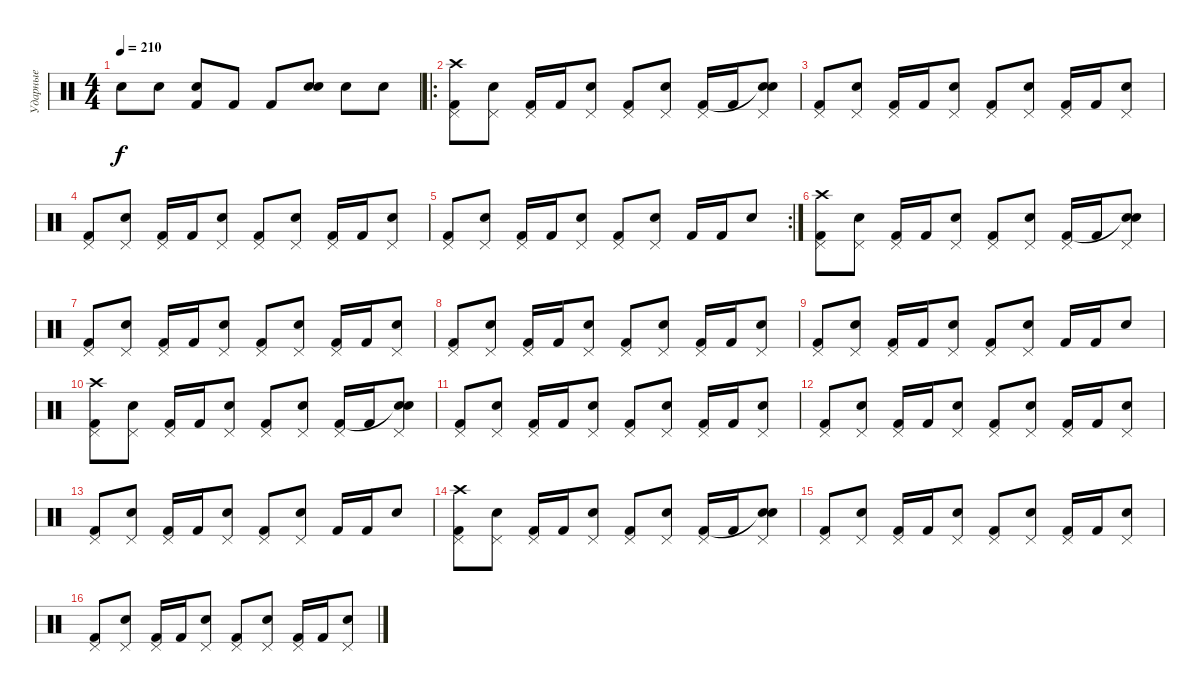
\track ("Ударные" "Ударные") {instrument percussion}
\staff {score}
\articulation defaults
\ts (4 4)
\tempo 210
\clef neutral
\ks c "Snare (hit) 2".8{dy f} "Snare (hit) 2".8
("Kick (hit) 2" "Snare (hit) 2").8 "Kick (hit) 2".8 "Kick (hit) 2".8 ("Snare (hit) 2" "Snare (hit) 2").8 "Snare (hit) 2".8 "Snare (hit) 2".8 |
\ro
("Pedal Hi-Hat (hit)" "Crash high (hit)" "Kick (hit) 2").8 ("Pedal Hi-Hat (hit)" "Snare (hit) 2").8 ("Pedal Hi-Hat (hit)" "Kick (hit) 2").16 "Kick (hit) 2".16 ("Pedal Hi-Hat (hit)" "Snare (hit) 2").8 ("Pedal Hi-Hat (hit)" "Kick (hit) 2").8 ("Pedal Hi-Hat (hit)" "Snare (hit) 2").8 ("Pedal Hi-Hat (hit)" "Kick (hit) 2").16 "Kick (hit) 2".16 ("Pedal Hi-Hat (hit)" "Snare (hit)"{t} "Snare (hit) 2").8 |
("Pedal Hi-Hat (hit)" "Kick (hit) 2").8 ("Pedal Hi-Hat (hit)" "Snare (hit) 2").8 ("Pedal Hi-Hat (hit)" "Kick (hit) 2").16 "Kick (hit) 2".16 ("Pedal Hi-Hat (hit)" "Snare (hit) 2").8 ("Pedal Hi-Hat (hit)" "Kick (hit) 2").8 ("Pedal Hi-Hat (hit)" "Snare (hit) 2").8 ("Pedal Hi-Hat (hit)" "Kick (hit) 2").16 "Kick (hit) 2".16 ("Pedal Hi-Hat (hit)" "Snare (hit) 2").8 |
("Pedal Hi-Hat (hit)" "Kick (hit) 2").8 ("Pedal Hi-Hat (hit)" "Snare (hit) 2").8 ("Pedal Hi-Hat (hit)" "Kick (hit) 2").16 "Kick (hit) 2".16 ("Pedal Hi-Hat (hit)" "Snare (hit) 2").8 ("Pedal Hi-Hat (hit)" "Kick (hit) 2").8 ("Pedal Hi-Hat (hit)" "Snare (hit) 2").8 ("Pedal Hi-Hat (hit)" "Kick (hit) 2").16 "Kick (hit) 2".16 ("Pedal Hi-Hat (hit)" "Snare (hit) 2").8 |
\rc 2
("Pedal Hi-Hat (hit)" "Kick (hit) 2").8 ("Pedal Hi-Hat (hit)" "Snare (hit) 2").8 ("Pedal Hi-Hat (hit)" "Kick (hit) 2").16 "Kick (hit) 2".16 ("Pedal Hi-Hat (hit)" "Snare (hit) 2").8 ("Pedal Hi-Hat (hit)" "Kick (hit) 2").8 ("Pedal Hi-Hat (hit)" "Snare (hit) 2").8 "Kick (hit) 2".16 "Kick (hit) 2".16 "Snare (hit) 2".8 |
("Pedal Hi-Hat (hit)" "Crash high (hit)" "Kick (hit) 2").8 ("Pedal Hi-Hat (hit)" "Snare (hit) 2").8 ("Pedal Hi-Hat (hit)" "Kick (hit) 2").16 "Kick (hit) 2".16 ("Pedal Hi-Hat (hit)" "Snare (hit) 2").8 ("Pedal Hi-Hat (hit)" "Kick (hit) 2").8 ("Pedal Hi-Hat (hit)" "Snare (hit) 2").8 ("Pedal Hi-Hat (hit)" "Kick (hit) 2").16 "Kick (hit) 2".16 ("Pedal Hi-Hat (hit)" "Snare (hit)"{t} "Snare (hit) 2").8 |
("Pedal Hi-Hat (hit)" "Kick (hit) 2").8 ("Pedal Hi-Hat (hit)" "Snare (hit) 2").8 ("Pedal Hi-Hat (hit)" "Kick (hit) 2").16 "Kick (hit) 2".16 ("Pedal Hi-Hat (hit)" "Snare (hit) 2").8 ("Pedal Hi-Hat (hit)" "Kick (hit) 2").8 ("Pedal Hi-Hat (hit)" "Snare (hit) 2").8 ("Pedal Hi-Hat (hit)" "Kick (hit) 2").16 "Kick (hit) 2".16 ("Pedal Hi-Hat (hit)" "Snare (hit) 2").8 |
("Pedal Hi-Hat (hit)" "Kick (hit) 2").8 ("Pedal Hi-Hat (hit)" "Snare (hit) 2").8 ("Pedal Hi-Hat (hit)" "Kick (hit) 2").16 "Kick (hit) 2".16 ("Pedal Hi-Hat (hit)" "Snare (hit) 2").8 ("Pedal Hi-Hat (hit)" "Kick (hit) 2").8 ("Pedal Hi-Hat (hit)" "Snare (hit) 2").8 ("Pedal Hi-Hat (hit)" "Kick (hit) 2").16 "Kick (hit) 2".16 ("Pedal Hi-Hat (hit)" "Snare (hit) 2").8 |
("Pedal Hi-Hat (hit)" "Kick (hit) 2").8 ("Pedal Hi-Hat (hit)" "Snare (hit) 2").8 ("Pedal Hi-Hat (hit)" "Kick (hit) 2").16 "Kick (hit) 2".16 ("Pedal Hi-Hat (hit)" "Snare (hit) 2").8 ("Pedal Hi-Hat (hit)" "Kick (hit) 2").8 ("Pedal Hi-Hat (hit)" "Snare (hit) 2").8 "Kick (hit) 2".16 "Kick (hit) 2".16 "Snare (hit) 2".8 |
("Pedal Hi-Hat (hit)" "Crash high (hit)" "Kick (hit) 2").8 ("Pedal Hi-Hat (hit)" "Snare (hit) 2").8 ("Pedal Hi-Hat (hit)" "Kick (hit) 2").16 "Kick (hit) 2".16 ("Pedal Hi-Hat (hit)" "Snare (hit) 2").8 ("Pedal Hi-Hat (hit)" "Kick (hit) 2").8 ("Pedal Hi-Hat (hit)" "Snare (hit) 2").8 ("Pedal Hi-Hat (hit)" "Kick (hit) 2").16 "Kick (hit) 2".16 ("Pedal Hi-Hat (hit)" "Snare (hit)"{t} "Snare (hit) 2").8 |
("Pedal Hi-Hat (hit)" "Kick (hit) 2").8 ("Pedal Hi-Hat (hit)" "Snare (hit) 2").8 ("Pedal Hi-Hat (hit)" "Kick (hit) 2").16 "Kick (hit) 2".16 ("Pedal Hi-Hat (hit)" "Snare (hit) 2").8 ("Pedal Hi-Hat (hit)" "Kick (hit) 2").8 ("Pedal Hi-Hat (hit)" "Snare (hit) 2").8 ("Pedal Hi-Hat (hit)" "Kick (hit) 2").16 "Kick (hit) 2".16 ("Pedal Hi-Hat (hit)" "Snare (hit) 2").8 |
("Pedal Hi-Hat (hit)" "Kick (hit) 2").8 ("Pedal Hi-Hat (hit)" "Snare (hit) 2").8 ("Pedal Hi-Hat (hit)" "Kick (hit) 2").16 "Kick (hit) 2".16 ("Pedal Hi-Hat (hit)" "Snare (hit) 2").8 ("Pedal Hi-Hat (hit)" "Kick (hit) 2").8 ("Pedal Hi-Hat (hit)" "Snare (hit) 2").8 ("Pedal Hi-Hat (hit)" "Kick (hit) 2").16 "Kick (hit) 2".16 ("Pedal Hi-Hat (hit)" "Snare (hit) 2").8 |
("Pedal Hi-Hat (hit)" "Kick (hit) 2").8 ("Pedal Hi-Hat (hit)" "Snare (hit) 2").8 ("Pedal Hi-Hat (hit)" "Kick (hit) 2").16 "Kick (hit) 2".16 ("Pedal Hi-Hat (hit)" "Snare (hit) 2").8 ("Pedal Hi-Hat (hit)" "Kick (hit) 2").8 ("Pedal Hi-Hat (hit)" "Snare (hit) 2").8 "Kick (hit) 2".16 "Kick (hit) 2".16 "Snare (hit) 2".8 |
("Pedal Hi-Hat (hit)" "Crash high (hit)" "Kick (hit) 2").8 ("Pedal Hi-Hat (hit)" "Snare (hit) 2").8 ("Pedal Hi-Hat (hit)" "Kick (hit) 2").16 "Kick (hit) 2".16 ("Pedal Hi-Hat (hit)" "Snare (hit) 2").8 ("Pedal Hi-Hat (hit)" "Kick (hit) 2").8 ("Pedal Hi-Hat (hit)" "Snare (hit) 2").8 ("Pedal Hi-Hat (hit)" "Kick (hit) 2").16 "Kick (hit) 2".16 ("Pedal Hi-Hat (hit)" "Snare (hit)"{t} "Snare (hit) 2").8 |
("Pedal Hi-Hat (hit)" "Kick (hit) 2").8 ("Pedal Hi-Hat (hit)" "Snare (hit) 2").8 ("Pedal Hi-Hat (hit)" "Kick (hit) 2").16 "Kick (hit) 2".16 ("Pedal Hi-Hat (hit)" "Snare (hit) 2").8 ("Pedal Hi-Hat (hit)" "Kick (hit) 2").8 ("Pedal Hi-Hat (hit)" "Snare (hit) 2").8 ("Pedal Hi-Hat (hit)" "Kick (hit) 2").16 "Kick (hit) 2".16 ("Pedal Hi-Hat (hit)" "Snare (hit) 2").8 |
("Pedal Hi-Hat (hit)" "Kick (hit) 2").8 ("Pedal Hi-Hat (hit)" "Snare (hit) 2").8 ("Pedal Hi-Hat (hit)" "Kick (hit) 2").16 "Kick (hit) 2".16 ("Pedal Hi-Hat (hit)" "Snare (hit) 2").8 ("Pedal Hi-Hat (hit)" "Kick (hit) 2").8 ("Pedal Hi-Hat (hit)" "Snare (hit) 2").8 ("Pedal Hi-Hat (hit)" "Kick (hit) 2").16 "Kick (hit) 2".16 ("Pedal Hi-Hat (hit)" "Snare (hit) 2").8
